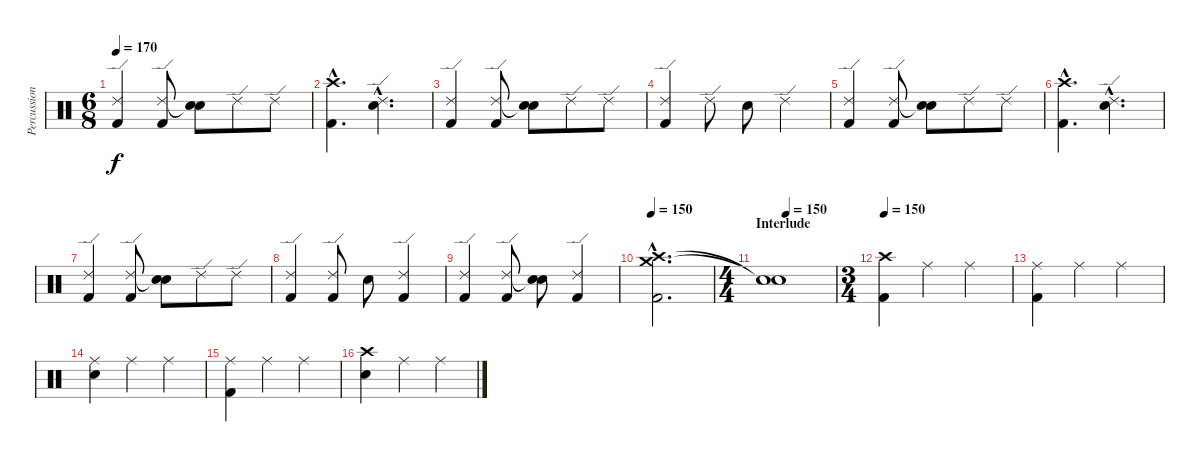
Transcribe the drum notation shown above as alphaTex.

\track ("Percussion" "Percussion") {instrument percussion}
\staff {score}
\articulation defaults
\ts (6 8)
\tempo 170
\clef neutral
\ks c
("Ride (edge) 2" "Kick (hit) 2").4{dy f} ("Ride (edge) 2" "Kick (hit) 2").8 ("Snare (hit)"{t} "Electric Snare (hit)").8 "Ride (edge) 2".8 "Ride (edge) 2".8 |
("Crash high (hit)"{hac} "Kick (hit) 2"{hac}).4{d} ("Ride (edge) 2"{hac} "Electric Snare (hit)"{hac}).4{d} |
("Ride (edge) 2" "Kick (hit) 2").4 ("Ride (edge) 2" "Kick (hit) 2").8 ("Snare (hit)"{t} "Electric Snare (hit)").8 "Ride (edge) 2".8 "Ride (edge) 2".8 |
("Ride (edge) 2" "Kick (hit) 2").4 "Ride (edge) 2".8 "Electric Snare (hit)".8 "Ride (edge) 2".4 |
("Ride (edge) 2" "Kick (hit) 2").4 ("Ride (edge) 2" "Kick (hit) 2").8 ("Snare (hit)"{t} "Electric Snare (hit)").8 "Ride (edge) 2".8 "Ride (edge) 2".8 |
("Crash high (hit)"{hac} "Kick (hit) 2"{hac}).4{d} ("Ride (edge) 2"{hac} "Electric Snare (hit)"{hac}).4{d} |
("Ride (edge) 2" "Kick (hit) 2").4 ("Ride (edge) 2" "Kick (hit) 2").8 ("Snare (hit)"{t} "Electric Snare (hit)").8 "Ride (edge) 2".8 "Ride (edge) 2".8 |
("Ride (edge) 2" "Kick (hit) 2").4 ("Ride (edge) 2" "Kick (hit) 2").8 "Electric Snare (hit)".8 ("Ride (edge) 2" "Kick (hit) 2").4 |
("Ride (edge) 2" "Kick (hit) 2").4 ("Ride (edge) 2" "Kick (hit) 2").8 ("Snare (hit)"{t} "Electric Snare (hit)").8 ("Ride (edge) 2" "Kick (hit) 2").4 |
\tempo 150
("Crash high (hit)"{hac} "Crash medium (hit)"{hac} "Kick (hit) 2"{hac}).2{d} |
\ts (4 4)
\section ("" "Interlude")
\tempo (150 0.25)
("Snare (hit)"{t} "Snare (hit)"{t}).1 |
\ts (3 4)
\tempo 150
("Crash high (hit)" "Kick (hit) 2").4 "Ride (middle)".4 "Ride (middle)".4 |
("Ride (middle)" "Kick (hit) 2").4 "Ride (middle)".4 "Ride (middle)".4 |
("Ride (middle)" "Electric Snare (hit)").4 "Ride (middle)".4 "Ride (middle)".4 |
("Ride (middle)" "Kick (hit) 2").4 "Ride (middle)".4 "Ride (middle)".4 |
("Crash high (hit)" "Electric Snare (hit)").4 "Ride (middle)".4 "Ride (middle)".4
